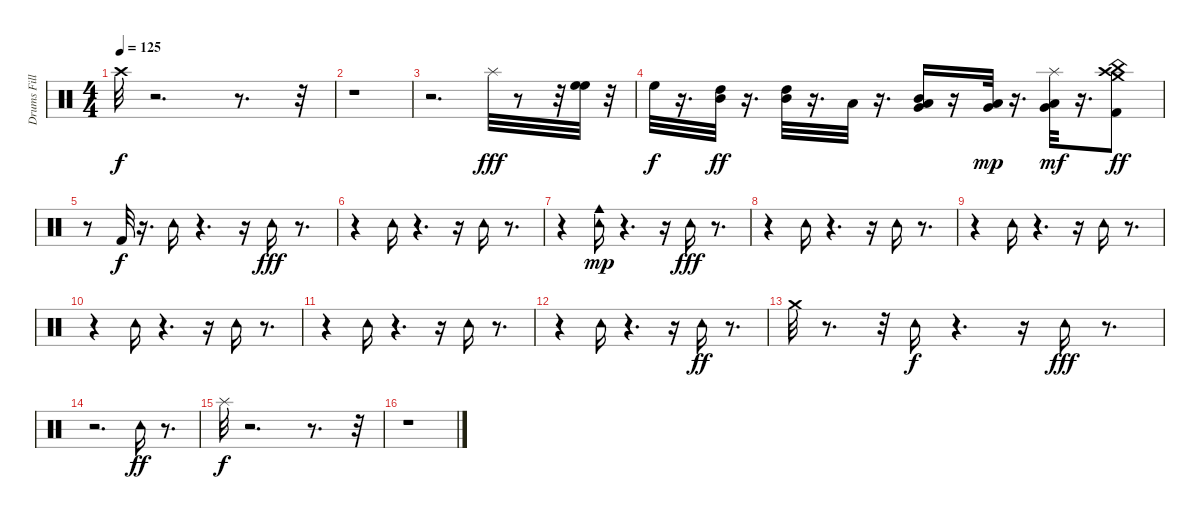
\track ("Drums Fill" "Drums Fill") {instrument percussion}
\staff {score}
\articulation defaults
\ts (4 4)
\tempo 125
\clef neutral
\ks c "Crash high (hit)".32{dy f}
r.2{d} r.8{d} r.32 |
r.1 |
r.2{d} "Splash (hit)".32{dy fff} r.8 r.32 ("High Floor Tom (hit)" "High Floor Tom (hit)").32 r.32 |
"High Floor Tom (hit)".32{dy f} r.16{d} ("High Tom (hit)" "Mid Tom (hit)").32{dy ff} r.16{d} ("Mid Tom (hit)" "High Tom (hit)").32 r.16{d} "Low Tom (hit)".32 r.16{d} ("Very Low Tom (hit)" "Mid Tom (hit)" "Low Tom (hit)").16 r.16 ("Very Low Tom (hit)" "Low Tom (hit)").32{dy mp} r.16{d} ("Low Floor Tom (hit)" "Very Low Tom (hit)" "Splash (hit)").32{dy mf} r.16{d} ("Kick (hit) 2" "China (hit)" "Crash high (hit)" "Crash medium (hit)").8{dy ff} |
r.8 "Kick (hit) 2".32{dy f} r.16{d} "Tambourine (hit)".16 r.4{d} r.16 "Tambourine (hit)".16{dy fff} r.8{d} |
r.4 "Tambourine (hit)".16 r.4{d} r.16 "Tambourine (hit)".16 r.8{d} |
r.4 ("Tambourine (hit)" "Cowbell medium (hit)").16{dy mp} r.4{d} r.16 "Tambourine (hit)".16{dy fff} r.8{d} |
r.4 "Tambourine (hit)".16 r.4{d} r.16 "Tambourine (hit)".16 r.8{d} |
r.4 "Tambourine (hit)".16 r.4{d} r.16 "Tambourine (hit)".16 r.8{d} |
r.4 "Tambourine (hit)".16 r.4{d} r.16 "Tambourine (hit)".16 r.8{d} |
r.4 "Tambourine (hit)".16 r.4{d} r.16 "Tambourine (hit)".16 r.8{d} |
r.4 "Tambourine (hit)".16 r.4{d} r.16 "Tambourine (hit)".16{dy ff} r.8{d} |
"Crash medium (hit)".32 r.8{d} r.32 "Tambourine (hit)".16{dy f} r.4{d} r.16 "Tambourine (hit)".16{dy fff} r.8{d} |
r.2{d} "Tambourine (hit)".16{dy ff} r.8{d} |
"Splash (hit)".32{dy f} r.2{d} r.8{d} r.32 |
r.1
